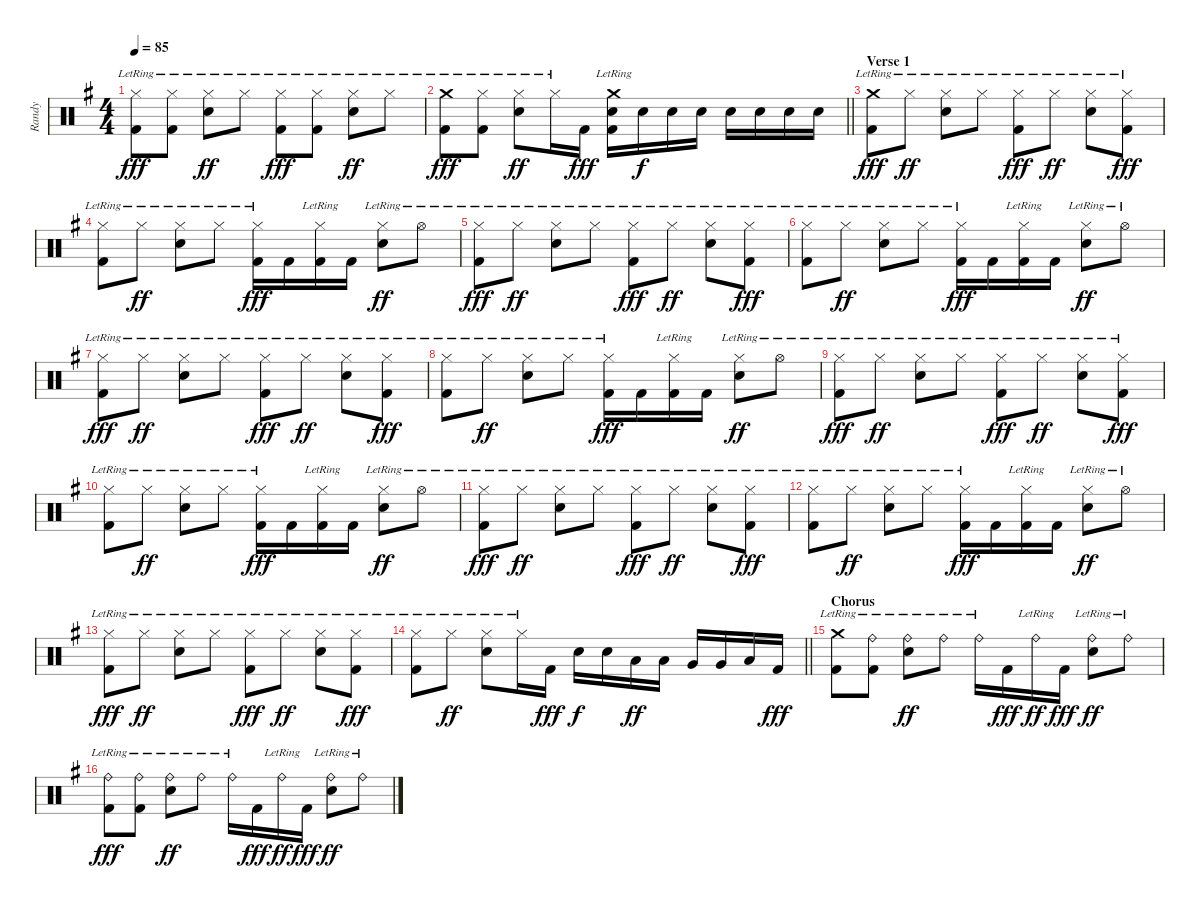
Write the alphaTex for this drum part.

\track ("Randy" "Randy") {instrument percussion}
\staff {score}
\articulation defaults
\ts (4 4)
\tempo 85
\clef neutral
\ks g
("Hi-Hat (closed)"{lr} "Kick (hit) 2").8{dy fff} ("Hi-Hat (closed)"{lr} "Kick (hit) 2").8 ("Hi-Hat (closed)"{lr} "Snare (hit) 2").8{dy ff} "Hi-Hat (closed)"{lr}.8 ("Hi-Hat (closed)"{lr} "Kick (hit) 2").8{dy fff} ("Hi-Hat (closed)"{lr} "Kick (hit) 2").8 ("Hi-Hat (closed)"{lr} "Snare (hit) 2").8{dy ff} "Hi-Hat (closed)"{lr}.8 |
\barLineRight lightlight
("Crash medium (hit)"{lr} "Kick (hit) 2").8{dy fff} ("Hi-Hat (closed)"{lr} "Kick (hit) 2").8 ("Hi-Hat (closed)"{lr} "Snare (hit) 2").8{dy ff} "Hi-Hat (closed)"{lr}.16 "Kick (hit) 2".16{dy fff} ("Crash medium (hit)"{lr} "Snare (hit) 2" "Kick (hit) 2").16 "Snare (hit) 2".16{dy f} "Snare (hit) 2".16 "Snare (hit) 2".16 "Snare (hit) 2".16 "Snare (hit) 2".16 "Snare (hit) 2".16 "Snare (hit) 2".16 |
\section ("" "Verse 1")
("Crash medium (hit)"{lr} "Kick (hit) 2").8{dy fff} "Hi-Hat (closed)"{lr}.8{dy ff} ("Hi-Hat (closed)"{lr} "Snare (hit) 2").8 "Hi-Hat (closed)"{lr}.8 ("Hi-Hat (closed)"{lr} "Kick (hit) 2").8{dy fff} "Hi-Hat (closed)"{lr}.8{dy ff} ("Hi-Hat (closed)"{lr} "Snare (hit) 2").8 ("Hi-Hat (closed)"{lr} "Kick (hit) 2").8{dy fff} |
("Hi-Hat (closed)"{lr} "Kick (hit) 2").8 "Hi-Hat (closed)"{lr}.8{dy ff} ("Hi-Hat (closed)"{lr} "Snare (hit) 2").8 "Hi-Hat (closed)"{lr}.8 ("Hi-Hat (closed)"{lr} "Kick (hit) 2").16{dy fff} "Kick (hit) 2".16 ("Hi-Hat (closed)"{lr} "Kick (hit) 2").16 "Kick (hit) 2".16 ("Hi-Hat (closed)"{lr} "Snare (hit) 2").8{dy ff} "Hi-Hat (open)"{lr}.8 |
("Hi-Hat (closed)"{lr} "Kick (hit) 2").8{dy fff} "Hi-Hat (closed)"{lr}.8{dy ff} ("Hi-Hat (closed)"{lr} "Snare (hit) 2").8 "Hi-Hat (closed)"{lr}.8 ("Hi-Hat (closed)"{lr} "Kick (hit) 2").8{dy fff} "Hi-Hat (closed)"{lr}.8{dy ff} ("Hi-Hat (closed)"{lr} "Snare (hit) 2").8 ("Hi-Hat (closed)"{lr} "Kick (hit) 2").8{dy fff} |
("Hi-Hat (closed)"{lr} "Kick (hit) 2").8 "Hi-Hat (closed)"{lr}.8{dy ff} ("Hi-Hat (closed)"{lr} "Snare (hit) 2").8 "Hi-Hat (closed)"{lr}.8 ("Hi-Hat (closed)"{lr} "Kick (hit) 2").16{dy fff} "Kick (hit) 2".16 ("Hi-Hat (closed)"{lr} "Kick (hit) 2").16 "Kick (hit) 2".16 ("Hi-Hat (closed)"{lr} "Snare (hit) 2").8{dy ff} "Hi-Hat (open)"{lr}.8 |
("Hi-Hat (closed)"{lr} "Kick (hit) 2").8{dy fff} "Hi-Hat (closed)"{lr}.8{dy ff} ("Hi-Hat (closed)"{lr} "Snare (hit) 2").8 "Hi-Hat (closed)"{lr}.8 ("Hi-Hat (closed)"{lr} "Kick (hit) 2").8{dy fff} "Hi-Hat (closed)"{lr}.8{dy ff} ("Hi-Hat (closed)"{lr} "Snare (hit) 2").8 ("Hi-Hat (closed)"{lr} "Kick (hit) 2").8{dy fff} |
("Hi-Hat (closed)"{lr} "Kick (hit) 2").8 "Hi-Hat (closed)"{lr}.8{dy ff} ("Hi-Hat (closed)"{lr} "Snare (hit) 2").8 "Hi-Hat (closed)"{lr}.8 ("Hi-Hat (closed)"{lr} "Kick (hit) 2").16{dy fff} "Kick (hit) 2".16 ("Hi-Hat (closed)"{lr} "Kick (hit) 2").16 "Kick (hit) 2".16 ("Hi-Hat (closed)"{lr} "Snare (hit) 2").8{dy ff} "Hi-Hat (open)"{lr}.8 |
("Hi-Hat (closed)"{lr} "Kick (hit) 2").8{dy fff} "Hi-Hat (closed)"{lr}.8{dy ff} ("Hi-Hat (closed)"{lr} "Snare (hit) 2").8 "Hi-Hat (closed)"{lr}.8 ("Hi-Hat (closed)"{lr} "Kick (hit) 2").8{dy fff} "Hi-Hat (closed)"{lr}.8{dy ff} ("Hi-Hat (closed)"{lr} "Snare (hit) 2").8 ("Hi-Hat (closed)"{lr} "Kick (hit) 2").8{dy fff} |
("Hi-Hat (closed)"{lr} "Kick (hit) 2").8 "Hi-Hat (closed)"{lr}.8{dy ff} ("Hi-Hat (closed)"{lr} "Snare (hit) 2").8 "Hi-Hat (closed)"{lr}.8 ("Hi-Hat (closed)"{lr} "Kick (hit) 2").16{dy fff} "Kick (hit) 2".16 ("Hi-Hat (closed)"{lr} "Kick (hit) 2").16 "Kick (hit) 2".16 ("Hi-Hat (closed)"{lr} "Snare (hit) 2").8{dy ff} "Hi-Hat (open)"{lr}.8 |
("Hi-Hat (closed)"{lr} "Kick (hit) 2").8{dy fff} "Hi-Hat (closed)"{lr}.8{dy ff} ("Hi-Hat (closed)"{lr} "Snare (hit) 2").8 "Hi-Hat (closed)"{lr}.8 ("Hi-Hat (closed)"{lr} "Kick (hit) 2").8{dy fff} "Hi-Hat (closed)"{lr}.8{dy ff} ("Hi-Hat (closed)"{lr} "Snare (hit) 2").8 ("Hi-Hat (closed)"{lr} "Kick (hit) 2").8{dy fff} |
("Hi-Hat (closed)"{lr} "Kick (hit) 2").8 "Hi-Hat (closed)"{lr}.8{dy ff} ("Hi-Hat (closed)"{lr} "Snare (hit) 2").8 "Hi-Hat (closed)"{lr}.8 ("Hi-Hat (closed)"{lr} "Kick (hit) 2").16{dy fff} "Kick (hit) 2".16 ("Hi-Hat (closed)"{lr} "Kick (hit) 2").16 "Kick (hit) 2".16 ("Hi-Hat (closed)"{lr} "Snare (hit) 2").8{dy ff} "Hi-Hat (open)"{lr}.8 |
("Hi-Hat (closed)"{lr} "Kick (hit) 2").8{dy fff} "Hi-Hat (closed)"{lr}.8{dy ff} ("Hi-Hat (closed)"{lr} "Snare (hit) 2").8 "Hi-Hat (closed)"{lr}.8 ("Hi-Hat (closed)"{lr} "Kick (hit) 2").8{dy fff} "Hi-Hat (closed)"{lr}.8{dy ff} ("Hi-Hat (closed)"{lr} "Snare (hit) 2").8 ("Hi-Hat (closed)"{lr} "Kick (hit) 2").8{dy fff} |
\barLineRight lightlight
("Hi-Hat (closed)"{lr} "Kick (hit) 2").8 "Hi-Hat (closed)"{lr}.8{dy ff} ("Hi-Hat (closed)"{lr} "Snare (hit) 2").8 "Hi-Hat (closed)"{lr}.16 "Kick (hit) 2".16{dy fff} "Snare (hit) 2".16{dy f} "Snare (hit) 2".16 "Low Tom (hit)".16{dy ff} "Low Tom (hit)".16 "Very Low Tom (hit)".16 "Very Low Tom (hit)".16 "Low Floor Tom (hit)".16 "Kick (hit) 2".16{dy fff} |
\section ("" "Chorus")
("Crash medium (hit)"{lr} "Kick (hit) 2").8 ("Ride (bell)"{lr} "Kick (hit) 2").8 ("Ride (bell)"{lr} "Snare (hit) 2").8{dy ff} "Ride (bell)"{lr}.8 "Ride (bell)"{lr}.16 "Kick (hit) 2".16{dy fff} "Ride (bell)"{lr}.16{dy ff} "Kick (hit) 2".16{dy fff} ("Ride (bell)"{lr} "Snare (hit) 2").8{dy ff} "Ride (bell)"{lr}.8 |
("Ride (bell)"{lr} "Kick (hit) 2").8{dy fff} ("Ride (bell)"{lr} "Kick (hit) 2").8 ("Ride (bell)"{lr} "Snare (hit) 2").8{dy ff} "Ride (bell)"{lr}.8 "Ride (bell)"{lr}.16 "Kick (hit) 2".16{dy fff} "Ride (bell)"{lr}.16{dy ff} "Kick (hit) 2".16{dy fff} ("Ride (bell)"{lr} "Snare (hit) 2").8{dy ff} "Ride (bell)"{lr}.8
